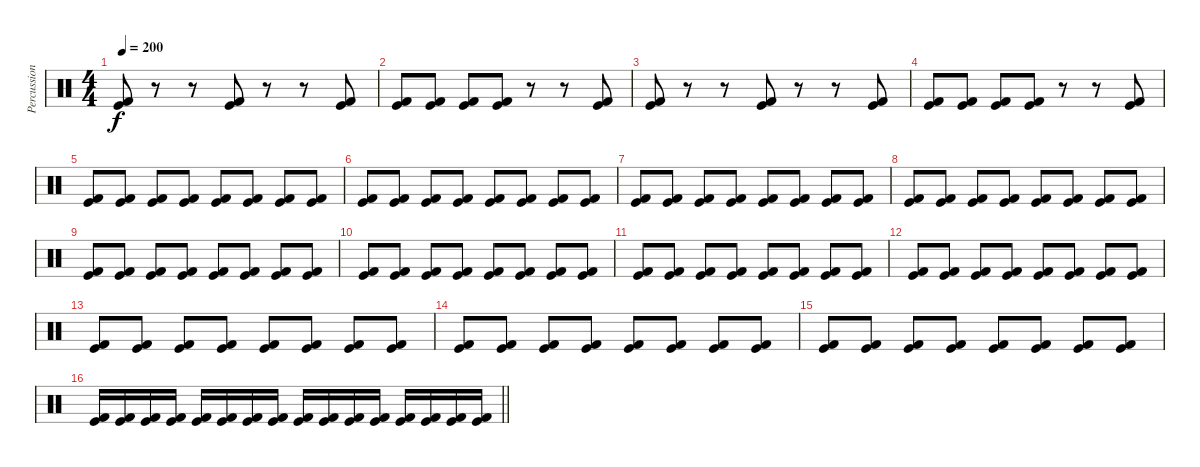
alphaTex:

\track ("Percussion" "Percussion") {instrument percussion}
\staff {score}
\articulation defaults
\ts (4 4)
\tempo 200
\clef neutral
\ks c
("Kick (hit) 2" "Kick (hit)").8{dy f} r.8 r.8 ("Kick (hit) 2" "Kick (hit)").8 r.8 r.8 ("Kick (hit) 2" "Kick (hit)").8 |
("Kick (hit) 2" "Kick (hit)").8 ("Kick (hit) 2" "Kick (hit)").8 ("Kick (hit) 2" "Kick (hit)").8 ("Kick (hit) 2" "Kick (hit)").8 r.8 r.8 ("Kick (hit) 2" "Kick (hit)").8 |
("Kick (hit) 2" "Kick (hit)").8 r.8 r.8 ("Kick (hit) 2" "Kick (hit)").8 r.8 r.8 ("Kick (hit) 2" "Kick (hit)").8 |
("Kick (hit) 2" "Kick (hit)").8 ("Kick (hit) 2" "Kick (hit)").8 ("Kick (hit) 2" "Kick (hit)").8 ("Kick (hit) 2" "Kick (hit)").8 r.8 r.8 ("Kick (hit) 2" "Kick (hit)").8 |
("Kick (hit) 2" "Kick (hit)").8 ("Kick (hit) 2" "Kick (hit)").8 ("Kick (hit) 2" "Kick (hit)").8 ("Kick (hit) 2" "Kick (hit)").8 ("Kick (hit) 2" "Kick (hit)").8 ("Kick (hit) 2" "Kick (hit)").8 ("Kick (hit) 2" "Kick (hit)").8 ("Kick (hit) 2" "Kick (hit)").8 |
("Kick (hit) 2" "Kick (hit)").8 ("Kick (hit) 2" "Kick (hit)").8 ("Kick (hit) 2" "Kick (hit)").8 ("Kick (hit) 2" "Kick (hit)").8 ("Kick (hit) 2" "Kick (hit)").8 ("Kick (hit) 2" "Kick (hit)").8 ("Kick (hit) 2" "Kick (hit)").8 ("Kick (hit) 2" "Kick (hit)").8 |
("Kick (hit) 2" "Kick (hit)").8 ("Kick (hit) 2" "Kick (hit)").8 ("Kick (hit) 2" "Kick (hit)").8 ("Kick (hit) 2" "Kick (hit)").8 ("Kick (hit) 2" "Kick (hit)").8 ("Kick (hit) 2" "Kick (hit)").8 ("Kick (hit) 2" "Kick (hit)").8 ("Kick (hit) 2" "Kick (hit)").8 |
("Kick (hit) 2" "Kick (hit)").8 ("Kick (hit) 2" "Kick (hit)").8 ("Kick (hit) 2" "Kick (hit)").8 ("Kick (hit) 2" "Kick (hit)").8 ("Kick (hit) 2" "Kick (hit)").8 ("Kick (hit) 2" "Kick (hit)").8 ("Kick (hit) 2" "Kick (hit)").8 ("Kick (hit) 2" "Kick (hit)").8 |
("Kick (hit) 2" "Kick (hit)").8 ("Kick (hit) 2" "Kick (hit)").8 ("Kick (hit) 2" "Kick (hit)").8 ("Kick (hit) 2" "Kick (hit)").8 ("Kick (hit) 2" "Kick (hit)").8 ("Kick (hit) 2" "Kick (hit)").8 ("Kick (hit) 2" "Kick (hit)").8 ("Kick (hit) 2" "Kick (hit)").8 |
("Kick (hit) 2" "Kick (hit)").8 ("Kick (hit) 2" "Kick (hit)").8 ("Kick (hit) 2" "Kick (hit)").8 ("Kick (hit) 2" "Kick (hit)").8 ("Kick (hit) 2" "Kick (hit)").8 ("Kick (hit) 2" "Kick (hit)").8 ("Kick (hit) 2" "Kick (hit)").8 ("Kick (hit) 2" "Kick (hit)").8 |
("Kick (hit) 2" "Kick (hit)").8 ("Kick (hit) 2" "Kick (hit)").8 ("Kick (hit) 2" "Kick (hit)").8 ("Kick (hit) 2" "Kick (hit)").8 ("Kick (hit) 2" "Kick (hit)").8 ("Kick (hit) 2" "Kick (hit)").8 ("Kick (hit) 2" "Kick (hit)").8 ("Kick (hit) 2" "Kick (hit)").8 |
("Kick (hit) 2" "Kick (hit)").8 ("Kick (hit) 2" "Kick (hit)").8 ("Kick (hit) 2" "Kick (hit)").8 ("Kick (hit) 2" "Kick (hit)").8 ("Kick (hit) 2" "Kick (hit)").8 ("Kick (hit) 2" "Kick (hit)").8 ("Kick (hit) 2" "Kick (hit)").8 ("Kick (hit) 2" "Kick (hit)").8 |
("Kick (hit) 2" "Kick (hit)").8 ("Kick (hit) 2" "Kick (hit)").8 ("Kick (hit) 2" "Kick (hit)").8 ("Kick (hit) 2" "Kick (hit)").8 ("Kick (hit) 2" "Kick (hit)").8 ("Kick (hit) 2" "Kick (hit)").8 ("Kick (hit) 2" "Kick (hit)").8 ("Kick (hit) 2" "Kick (hit)").8 |
("Kick (hit) 2" "Kick (hit)").8 ("Kick (hit) 2" "Kick (hit)").8 ("Kick (hit) 2" "Kick (hit)").8 ("Kick (hit) 2" "Kick (hit)").8 ("Kick (hit) 2" "Kick (hit)").8 ("Kick (hit) 2" "Kick (hit)").8 ("Kick (hit) 2" "Kick (hit)").8 ("Kick (hit) 2" "Kick (hit)").8 |
("Kick (hit) 2" "Kick (hit)").8 ("Kick (hit) 2" "Kick (hit)").8 ("Kick (hit) 2" "Kick (hit)").8 ("Kick (hit) 2" "Kick (hit)").8 ("Kick (hit) 2" "Kick (hit)").8 ("Kick (hit) 2" "Kick (hit)").8 ("Kick (hit) 2" "Kick (hit)").8 ("Kick (hit) 2" "Kick (hit)").8 |
\barLineRight lightlight
("Kick (hit) 2" "Kick (hit)").16 ("Kick (hit) 2" "Kick (hit)").16 ("Kick (hit) 2" "Kick (hit)").16 ("Kick (hit) 2" "Kick (hit)").16 ("Kick (hit) 2" "Kick (hit)").16 ("Kick (hit) 2" "Kick (hit)").16 ("Kick (hit) 2" "Kick (hit)").16 ("Kick (hit) 2" "Kick (hit)").16 ("Kick (hit) 2" "Kick (hit)").16 ("Kick (hit) 2" "Kick (hit)").16 ("Kick (hit) 2" "Kick (hit)").16 ("Kick (hit) 2" "Kick (hit)").16 ("Kick (hit) 2" "Kick (hit)").16 ("Kick (hit) 2" "Kick (hit)").16 ("Kick (hit) 2" "Kick (hit)").16 ("Kick (hit) 2" "Kick (hit)").16
